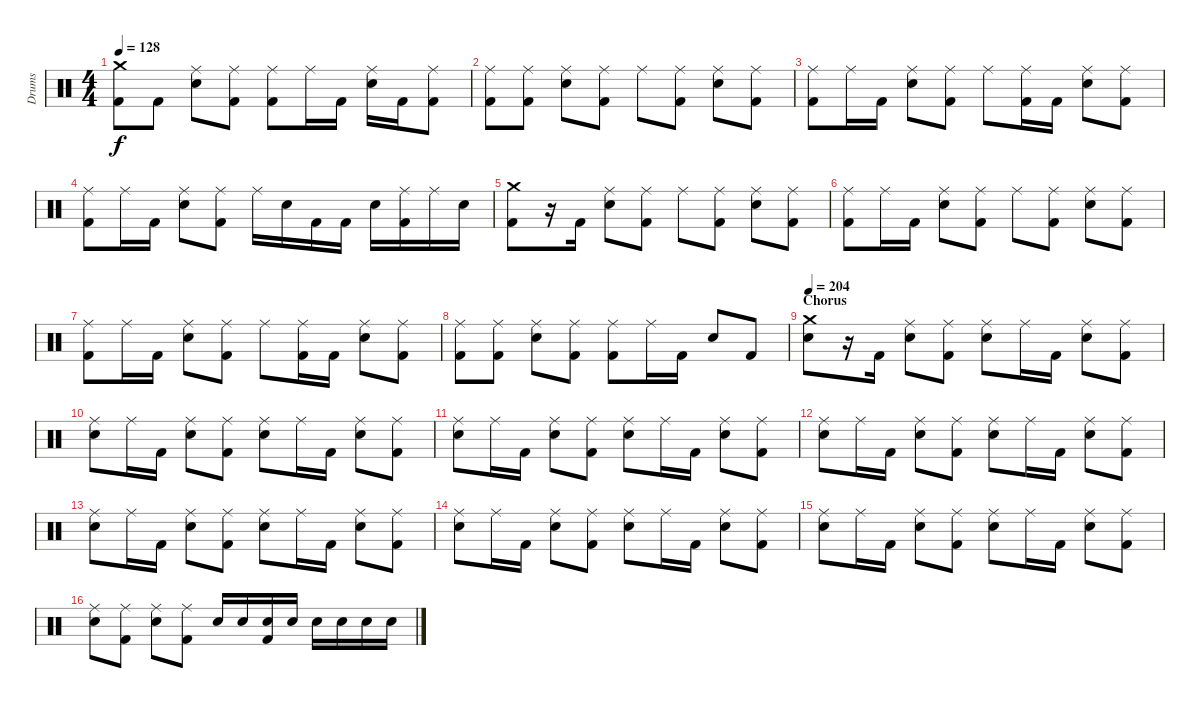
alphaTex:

\track ("Drums" "Drums") {instrument percussion}
\staff {score}
\articulation defaults
\ts (4 4)
\tempo 128
\clef neutral
\ks c
("Crash medium (hit)" "Kick (hit) 2").8{dy f} "Kick (hit) 2".8 ("Ride (middle)" "Snare (hit) 2").8 ("Ride (middle)" "Kick (hit) 2").8 ("Ride (middle)" "Kick (hit) 2").8 "Ride (middle)".16 "Kick (hit) 2".16 ("Ride (middle)" "Snare (hit) 2").16 "Kick (hit) 2".16 ("Ride (middle)" "Kick (hit) 2").8 |
("Ride (middle)" "Kick (hit) 2").8 ("Ride (middle)" "Kick (hit) 2").8 ("Ride (middle)" "Snare (hit) 2").8 ("Ride (middle)" "Kick (hit) 2").8 "Ride (middle)".8 ("Ride (middle)" "Kick (hit) 2").8 ("Ride (middle)" "Snare (hit) 2").8 ("Ride (middle)" "Kick (hit) 2").8 |
("Ride (middle)" "Kick (hit) 2").8 "Ride (middle)".16 "Kick (hit) 2".16 ("Ride (middle)" "Snare (hit) 2").8 ("Ride (middle)" "Kick (hit) 2").8 "Ride (middle)".8 ("Ride (middle)" "Kick (hit) 2").16 "Kick (hit) 2".16 ("Ride (middle)" "Snare (hit) 2").8 ("Ride (middle)" "Kick (hit) 2").8 |
("Ride (middle)" "Kick (hit) 2").8 "Ride (middle)".16 "Kick (hit) 2".16 ("Ride (middle)" "Snare (hit) 2").8 ("Ride (middle)" "Kick (hit) 2").8 "Ride (middle)".16 "Snare (hit) 2".16 "Kick (hit) 2".16 "Kick (hit) 2".16 "Snare (hit) 2".16 ("Ride (middle)" "Kick (hit) 2").16 "Ride (middle)".16 "Snare (hit) 2".16 |
("Crash medium (hit)" "Kick (hit) 2").8 r.16 "Kick (hit) 2".16 ("Ride (middle)" "Snare (hit) 2").8 ("Ride (middle)" "Kick (hit) 2").8 "Ride (middle)".8 ("Ride (middle)" "Kick (hit) 2").8 ("Ride (middle)" "Snare (hit) 2").8 ("Ride (middle)" "Kick (hit) 2").8 |
("Ride (middle)" "Kick (hit) 2").8 "Ride (middle)".16 "Kick (hit) 2".16 ("Ride (middle)" "Snare (hit) 2").8 ("Ride (middle)" "Kick (hit) 2").8 "Ride (middle)".8 ("Ride (middle)" "Kick (hit) 2").8 ("Ride (middle)" "Snare (hit) 2").8 ("Ride (middle)" "Kick (hit) 2").8 |
("Ride (middle)" "Kick (hit) 2").8 "Ride (middle)".16 "Kick (hit) 2".16 ("Ride (middle)" "Snare (hit) 2").8 ("Ride (middle)" "Kick (hit) 2").8 "Ride (middle)".8 ("Ride (middle)" "Kick (hit) 2").16 "Kick (hit) 2".16 ("Ride (middle)" "Snare (hit) 2").8 ("Ride (middle)" "Kick (hit) 2").8 |
("Ride (middle)" "Kick (hit) 2").8 ("Ride (middle)" "Kick (hit) 2").8 ("Ride (middle)" "Snare (hit) 2").8 ("Ride (middle)" "Kick (hit) 2").8 ("Ride (middle)" "Kick (hit) 2").8 "Ride (middle)".16 "Kick (hit) 2".16 "Snare (hit) 2".8 "Kick (hit) 2".8 |
\section ("" "Chorus")
\tempo 204
("Crash medium (hit)" "Snare (hit) 2").8 r.16 "Kick (hit) 2".16 ("Ride (middle)" "Snare (hit) 2").8 ("Ride (middle)" "Kick (hit) 2").8 ("Ride (middle)" "Snare (hit) 2").8 "Ride (middle)".16 "Kick (hit) 2".16 ("Ride (middle)" "Snare (hit) 2").8 ("Ride (middle)" "Kick (hit) 2").8 |
("Ride (middle)" "Snare (hit) 2").8 "Ride (middle)".16 "Kick (hit) 2".16 ("Ride (middle)" "Snare (hit) 2").8 ("Ride (middle)" "Kick (hit) 2").8 ("Ride (middle)" "Snare (hit) 2").8 "Ride (middle)".16 "Kick (hit) 2".16 ("Ride (middle)" "Snare (hit) 2").8 ("Ride (middle)" "Kick (hit) 2").8 |
("Ride (middle)" "Snare (hit) 2").8 "Ride (middle)".16 "Kick (hit) 2".16 ("Ride (middle)" "Snare (hit) 2").8 ("Ride (middle)" "Kick (hit) 2").8 ("Ride (middle)" "Snare (hit) 2").8 "Ride (middle)".16 "Kick (hit) 2".16 ("Ride (middle)" "Snare (hit) 2").8 ("Ride (middle)" "Kick (hit) 2").8 |
("Ride (middle)" "Snare (hit) 2").8 "Ride (middle)".16 "Kick (hit) 2".16 ("Ride (middle)" "Snare (hit) 2").8 ("Ride (middle)" "Kick (hit) 2").8 ("Ride (middle)" "Snare (hit) 2").8 "Ride (middle)".16 "Kick (hit) 2".16 ("Ride (middle)" "Snare (hit) 2").8 ("Ride (middle)" "Kick (hit) 2").8 |
("Ride (middle)" "Snare (hit) 2").8 "Ride (middle)".16 "Kick (hit) 2".16 ("Ride (middle)" "Snare (hit) 2").8 ("Ride (middle)" "Kick (hit) 2").8 ("Ride (middle)" "Snare (hit) 2").8 "Ride (middle)".16 "Kick (hit) 2".16 ("Ride (middle)" "Snare (hit) 2").8 ("Ride (middle)" "Kick (hit) 2").8 |
("Ride (middle)" "Snare (hit) 2").8 "Ride (middle)".16 "Kick (hit) 2".16 ("Ride (middle)" "Snare (hit) 2").8 ("Ride (middle)" "Kick (hit) 2").8 ("Ride (middle)" "Snare (hit) 2").8 "Ride (middle)".16 "Kick (hit) 2".16 ("Ride (middle)" "Snare (hit) 2").8 ("Ride (middle)" "Kick (hit) 2").8 |
("Ride (middle)" "Snare (hit) 2").8 "Ride (middle)".16 "Kick (hit) 2".16 ("Ride (middle)" "Snare (hit) 2").8 ("Ride (middle)" "Kick (hit) 2").8 ("Ride (middle)" "Snare (hit) 2").8 "Ride (middle)".16 "Kick (hit) 2".16 ("Ride (middle)" "Snare (hit) 2").8 ("Ride (middle)" "Kick (hit) 2").8 |
("Ride (middle)" "Snare (hit) 2").8 ("Ride (middle)" "Kick (hit) 2").8 ("Ride (middle)" "Snare (hit) 2").8 ("Ride (middle)" "Kick (hit) 2").8 "Snare (hit) 2".16 "Snare (hit) 2".16 ("Snare (hit) 2" "Kick (hit) 2").16 "Snare (hit) 2".16 "Snare (hit) 2".16 "Snare (hit) 2".16 "Snare (hit) 2".16 "Snare (hit) 2".16
